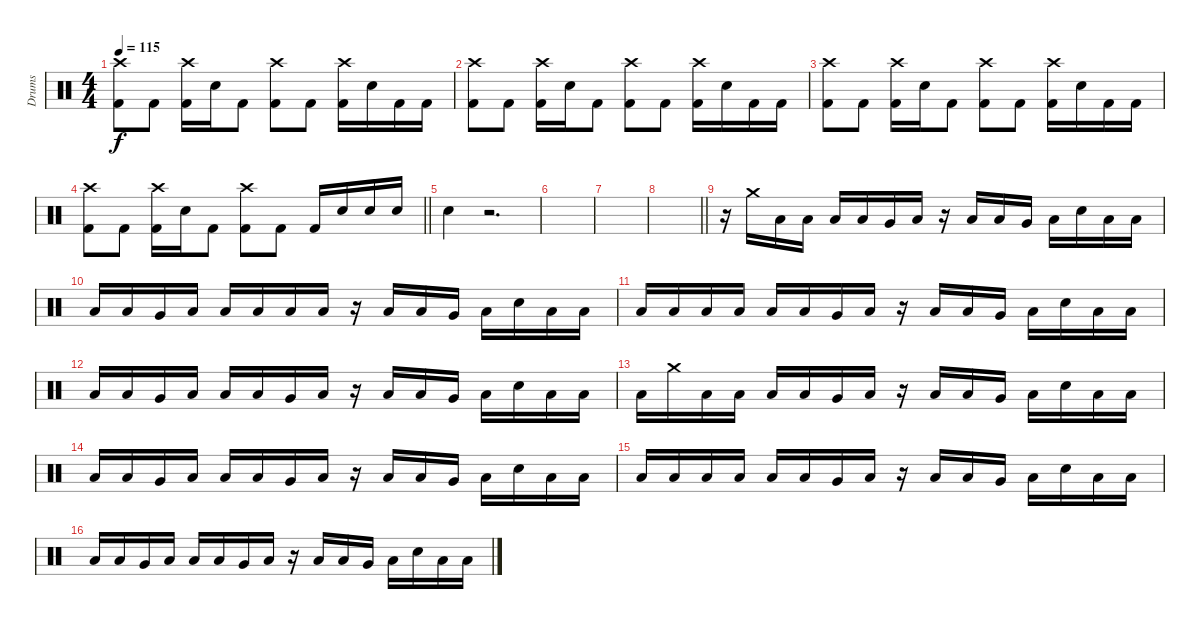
\track ("Drums" "Drums") {instrument percussion}
\staff {score}
\articulation defaults
\ts (4 4)
\tempo 115
\clef neutral
\ks c
("Crash high (hit)" "Kick (hit) 2").8{dy f} "Kick (hit) 2".8 ("Crash high (hit)" "Kick (hit) 2").16 "Snare (hit) 2".16 "Kick (hit) 2".8 ("Crash high (hit)" "Kick (hit) 2").8 "Kick (hit) 2".8 ("Crash high (hit)" "Kick (hit) 2").16 "Snare (hit) 2".16 "Kick (hit) 2".16 "Kick (hit) 2".16 |
("Crash high (hit)" "Kick (hit) 2").8 "Kick (hit) 2".8 ("Crash high (hit)" "Kick (hit) 2").16 "Snare (hit) 2".16 "Kick (hit) 2".8 ("Crash high (hit)" "Kick (hit) 2").8 "Kick (hit) 2".8 ("Crash high (hit)" "Kick (hit) 2").16 "Snare (hit) 2".16 "Kick (hit) 2".16 "Kick (hit) 2".16 |
("Crash high (hit)" "Kick (hit) 2").8 "Kick (hit) 2".8 ("Crash high (hit)" "Kick (hit) 2").16 "Snare (hit) 2".16 "Kick (hit) 2".8 ("Crash high (hit)" "Kick (hit) 2").8 "Kick (hit) 2".8 ("Crash high (hit)" "Kick (hit) 2").16 "Snare (hit) 2".16 "Kick (hit) 2".16 "Kick (hit) 2".16 |
\barLineRight lightlight
("Crash high (hit)" "Kick (hit) 2").8 "Kick (hit) 2".8 ("Crash high (hit)" "Kick (hit) 2").16 "Snare (hit) 2".16 "Kick (hit) 2".8 ("Crash high (hit)" "Kick (hit) 2").8 "Kick (hit) 2".8 "Kick (hit) 2".16 "Snare (hit) 2".16 "Snare (hit) 2".16 "Snare (hit) 2".16 |
"Snare (hit) 2".4 r.2{d} |
|
|
\barLineRight lightlight
|
r.16 "Crash medium (hit)".16 "Low Floor Tom (hit)".16 "Low Floor Tom (hit)".16 "Low Floor Tom (hit)".16 "Low Floor Tom (hit)".16 "Very Low Tom (hit)".16 "Low Floor Tom (hit)".16 r.16 "Low Floor Tom (hit)".16 "Low Floor Tom (hit)".16 "Very Low Tom (hit)".16 "Low Floor Tom (hit)".16 "Snare (hit) 2".16 "Low Floor Tom (hit)".16 "Low Floor Tom (hit)".16 |
"Low Floor Tom (hit)".16 "Low Floor Tom (hit)".16 "Very Low Tom (hit)".16 "Low Floor Tom (hit)".16 "Low Floor Tom (hit)".16 "Low Floor Tom (hit)".16 "Low Floor Tom (hit)".16 "Low Floor Tom (hit)".16 r.16 "Low Floor Tom (hit)".16 "Low Floor Tom (hit)".16 "Very Low Tom (hit)".16 "Low Floor Tom (hit)".16 "Snare (hit) 2".16 "Low Floor Tom (hit)".16 "Low Floor Tom (hit)".16 |
"Low Floor Tom (hit)".16 "Low Tom (hit)".16 "Low Floor Tom (hit)".16 "Low Floor Tom (hit)".16 "Low Floor Tom (hit)".16 "Low Floor Tom (hit)".16 "Very Low Tom (hit)".16 "Low Floor Tom (hit)".16 r.16 "Low Floor Tom (hit)".16 "Low Floor Tom (hit)".16 "Very Low Tom (hit)".16 "Low Floor Tom (hit)".16 "Snare (hit) 2".16 "Low Floor Tom (hit)".16 "Low Floor Tom (hit)".16 |
"Low Floor Tom (hit)".16 "Low Floor Tom (hit)".16 "Very Low Tom (hit)".16 "Low Floor Tom (hit)".16 "Low Floor Tom (hit)".16 "Low Floor Tom (hit)".16 "Very Low Tom (hit)".16 "Low Floor Tom (hit)".16 r.16 "Low Floor Tom (hit)".16 "Low Floor Tom (hit)".16 "Very Low Tom (hit)".16 "Low Floor Tom (hit)".16 "Snare (hit) 2".16 "Low Floor Tom (hit)".16 "Low Floor Tom (hit)".16 |
"Low Floor Tom (hit)".16 "Crash medium (hit)".16 "Low Floor Tom (hit)".16 "Low Floor Tom (hit)".16 "Low Floor Tom (hit)".16 "Low Floor Tom (hit)".16 "Very Low Tom (hit)".16 "Low Floor Tom (hit)".16 r.16 "Low Floor Tom (hit)".16 "Low Floor Tom (hit)".16 "Very Low Tom (hit)".16 "Low Floor Tom (hit)".16 "Snare (hit) 2".16 "Low Floor Tom (hit)".16 "Low Floor Tom (hit)".16 |
"Low Floor Tom (hit)".16 "Low Floor Tom (hit)".16 "Very Low Tom (hit)".16 "Low Floor Tom (hit)".16 "Low Floor Tom (hit)".16 "Low Floor Tom (hit)".16 "Very Low Tom (hit)".16 "Low Floor Tom (hit)".16 r.16 "Low Floor Tom (hit)".16 "Low Floor Tom (hit)".16 "Very Low Tom (hit)".16 "Low Floor Tom (hit)".16 "Snare (hit) 2".16 "Low Floor Tom (hit)".16 "Low Floor Tom (hit)".16 |
"Low Floor Tom (hit)".16 "Low Tom (hit)".16 "Low Floor Tom (hit)".16 "Low Floor Tom (hit)".16 "Low Floor Tom (hit)".16 "Low Floor Tom (hit)".16 "Very Low Tom (hit)".16 "Low Floor Tom (hit)".16 r.16 "Low Floor Tom (hit)".16 "Low Floor Tom (hit)".16 "Very Low Tom (hit)".16 "Low Floor Tom (hit)".16 "Snare (hit) 2".16 "Low Floor Tom (hit)".16 "Low Floor Tom (hit)".16 |
"Low Floor Tom (hit)".16 "Low Floor Tom (hit)".16 "Very Low Tom (hit)".16 "Low Floor Tom (hit)".16 "Low Floor Tom (hit)".16 "Low Floor Tom (hit)".16 "Very Low Tom (hit)".16 "Low Floor Tom (hit)".16 r.16 "Low Floor Tom (hit)".16 "Low Floor Tom (hit)".16 "Very Low Tom (hit)".16 "Low Floor Tom (hit)".16 "Snare (hit) 2".16 "Low Floor Tom (hit)".16 "Low Floor Tom (hit)".16
